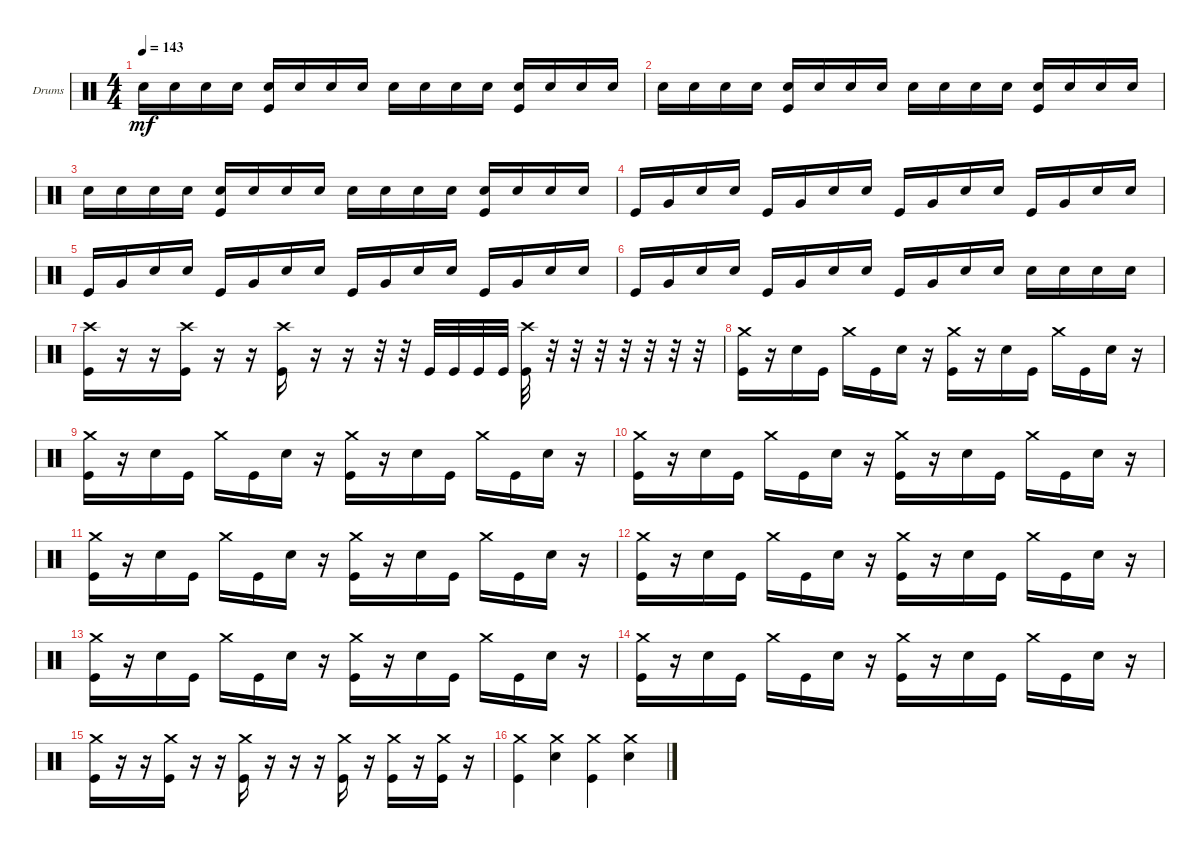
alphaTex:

\defaultSystemsLayout 4
\bracketExtendMode groupsimilarinstruments
\firstSystemTrackNameOrientation horizontal
\otherSystemsTrackNameOrientation horizontal
\track ("Drumkit" "Drums") {instrument percussion}
\staff {score}
\articulation defaults
\ts (4 4)
\tempo 143
\clef neutral
\scale
0.333333
\ks c "Snare (hit) 2".16{dy mf} "Snare (hit) 2".16 "Snare (hit) 2".16 "Snare (hit) 2".16
("Snare (hit) 2" "Kick (hit)").16 "Snare (hit) 2".16 "Snare (hit) 2".16 "Snare (hit) 2".16 "Snare (hit) 2".16 "Snare (hit) 2".16 "Snare (hit) 2".16 "Snare (hit) 2".16 ("Snare (hit) 2" "Kick (hit)").16 "Snare (hit) 2".16 "Snare (hit) 2".16 "Snare (hit) 2".16 |
\scale
0.333333 "Snare (hit) 2".16 "Snare (hit) 2".16 "Snare (hit) 2".16 "Snare (hit) 2".16 ("Snare (hit) 2" "Kick (hit)").16 "Snare (hit) 2".16 "Snare (hit) 2".16 "Snare (hit) 2".16 "Snare (hit) 2".16 "Snare (hit) 2".16 "Snare (hit) 2".16 "Snare (hit) 2".16 ("Snare (hit) 2" "Kick (hit)").16 "Snare (hit) 2".16 "Snare (hit) 2".16 "Snare (hit) 2".16 |
\scale
0.333333 "Snare (hit) 2".16 "Snare (hit) 2".16 "Snare (hit) 2".16 "Snare (hit) 2".16 ("Snare (hit) 2" "Kick (hit)").16 "Snare (hit) 2".16 "Snare (hit) 2".16 "Snare (hit) 2".16 "Snare (hit) 2".16 "Snare (hit) 2".16 "Snare (hit) 2".16 "Snare (hit) 2".16 ("Snare (hit) 2" "Kick (hit)").16 "Snare (hit) 2".16 "Snare (hit) 2".16 "Snare (hit) 2".16 |
\scale
0.333333 "Kick (hit)".16 "Very Low Tom (hit)".16 "Snare (hit) 2".16 "Snare (hit) 2".16 "Kick (hit)".16 "Very Low Tom (hit)".16 "Snare (hit) 2".16 "Snare (hit) 2".16 "Kick (hit)".16 "Very Low Tom (hit)".16 "Snare (hit) 2".16 "Snare (hit) 2".16 "Kick (hit)".16 "Very Low Tom (hit)".16 "Snare (hit) 2".16 "Snare (hit) 2".16 |
\scale
0.333333 "Kick (hit)".16 "Very Low Tom (hit)".16 "Snare (hit) 2".16 "Snare (hit) 2".16 "Kick (hit)".16 "Very Low Tom (hit)".16 "Snare (hit) 2".16 "Snare (hit) 2".16 "Kick (hit)".16 "Very Low Tom (hit)".16 "Snare (hit) 2".16 "Snare (hit) 2".16 "Kick (hit)".16 "Very Low Tom (hit)".16 "Snare (hit) 2".16 "Snare (hit) 2".16 |
\scale
0.333333 "Kick (hit)".16 "Very Low Tom (hit)".16 "Snare (hit) 2".16 "Snare (hit) 2".16 "Kick (hit)".16 "Very Low Tom (hit)".16 "Snare (hit) 2".16 "Snare (hit) 2".16 "Kick (hit)".16 "Very Low Tom (hit)".16 "Snare (hit) 2".16 "Snare (hit) 2".16 "Snare (hit) 2".16 "Snare (hit) 2".16 "Snare (hit) 2".16 "Snare (hit) 2".16 |
\scale
0.333333 ("Kick (hit)" "Crash high (hit)").16 r.16 r.16 ("Kick (hit)" "Crash high (hit)").16 r.16 r.16 ("Kick (hit)" "Crash high (hit)").16 r.16 r.16 r.32 r.32 "Kick (hit)".32 "Kick (hit)".32 "Kick (hit)".32 "Kick (hit)".32 ("Kick (hit)" "Crash high (hit)").32 r.32 r.32 r.32 r.32 r.32 r.32 r.32 |
\scale
0.333333 ("Kick (hit)" "Crash medium (hit)").16 r.16 "Snare (hit) 2".16 "Kick (hit)".16 "Crash medium (hit)".16 "Kick (hit)".16 "Snare (hit) 2".16 r.16 ("Kick (hit)" "Crash medium (hit)").16 r.16 "Snare (hit) 2".16 "Kick (hit)".16 "Crash medium (hit)".16 "Kick (hit)".16 "Snare (hit) 2".16 r.16 |
\scale
0.333333 ("Kick (hit)" "Crash medium (hit)").16 r.16 "Snare (hit) 2".16 "Kick (hit)".16 "Crash medium (hit)".16 "Kick (hit)".16 "Snare (hit) 2".16 r.16 ("Kick (hit)" "Crash medium (hit)").16 r.16 "Snare (hit) 2".16 "Kick (hit)".16 "Crash medium (hit)".16 "Kick (hit)".16 "Snare (hit) 2".16 r.16 |
\scale
0.333333 ("Kick (hit)" "Crash medium (hit)").16 r.16 "Snare (hit) 2".16 "Kick (hit)".16 "Crash medium (hit)".16 "Kick (hit)".16 "Snare (hit) 2".16 r.16 ("Kick (hit)" "Crash medium (hit)").16 r.16 "Snare (hit) 2".16 "Kick (hit)".16 "Crash medium (hit)".16 "Kick (hit)".16 "Snare (hit) 2".16 r.16 |
\scale
0.333333 ("Kick (hit)" "Crash medium (hit)").16 r.16 "Snare (hit) 2".16 "Kick (hit)".16 "Crash medium (hit)".16 "Kick (hit)".16 "Snare (hit) 2".16 r.16 ("Kick (hit)" "Crash medium (hit)").16 r.16 "Snare (hit) 2".16 "Kick (hit)".16 "Crash medium (hit)".16 "Kick (hit)".16 "Snare (hit) 2".16 r.16 |
\scale
0.333333 ("Kick (hit)" "Crash medium (hit)").16 r.16 "Snare (hit) 2".16 "Kick (hit)".16 "Crash medium (hit)".16 "Kick (hit)".16 "Snare (hit) 2".16 r.16 ("Kick (hit)" "Crash medium (hit)").16 r.16 "Snare (hit) 2".16 "Kick (hit)".16 "Crash medium (hit)".16 "Kick (hit)".16 "Snare (hit) 2".16 r.16 |
\scale
0.333333 ("Kick (hit)" "Crash medium (hit)").16 r.16 "Snare (hit) 2".16 "Kick (hit)".16 "Crash medium (hit)".16 "Kick (hit)".16 "Snare (hit) 2".16 r.16 ("Kick (hit)" "Crash medium (hit)").16 r.16 "Snare (hit) 2".16 "Kick (hit)".16 "Crash medium (hit)".16 "Kick (hit)".16 "Snare (hit) 2".16 r.16 |
\scale
0.333333 ("Kick (hit)" "Crash medium (hit)").16 r.16 "Snare (hit) 2".16 "Kick (hit)".16 "Crash medium (hit)".16 "Kick (hit)".16 "Snare (hit) 2".16 r.16 ("Kick (hit)" "Crash medium (hit)").16 r.16 "Snare (hit) 2".16 "Kick (hit)".16 "Crash medium (hit)".16 "Kick (hit)".16 "Snare (hit) 2".16 r.16 |
\scale
0.333333 ("Kick (hit)" "Crash medium (hit)").16 r.16 r.16 ("Kick (hit)" "Crash medium (hit)").16 r.16 r.16 ("Kick (hit)" "Crash medium (hit)").16 r.16 r.16 r.16 ("Kick (hit)" "Crash medium (hit)").16 r.16 ("Kick (hit)" "Crash medium (hit)").16 r.16 ("Kick (hit)" "Crash medium (hit)").16 r.16 |
\scale
0.333333 ("Kick (hit)" "Crash medium (hit)").4 ("Snare (hit) 2" "Crash medium (hit)").4 ("Kick (hit)" "Crash medium (hit)").4 ("Snare (hit) 2" "Crash medium (hit)").4
